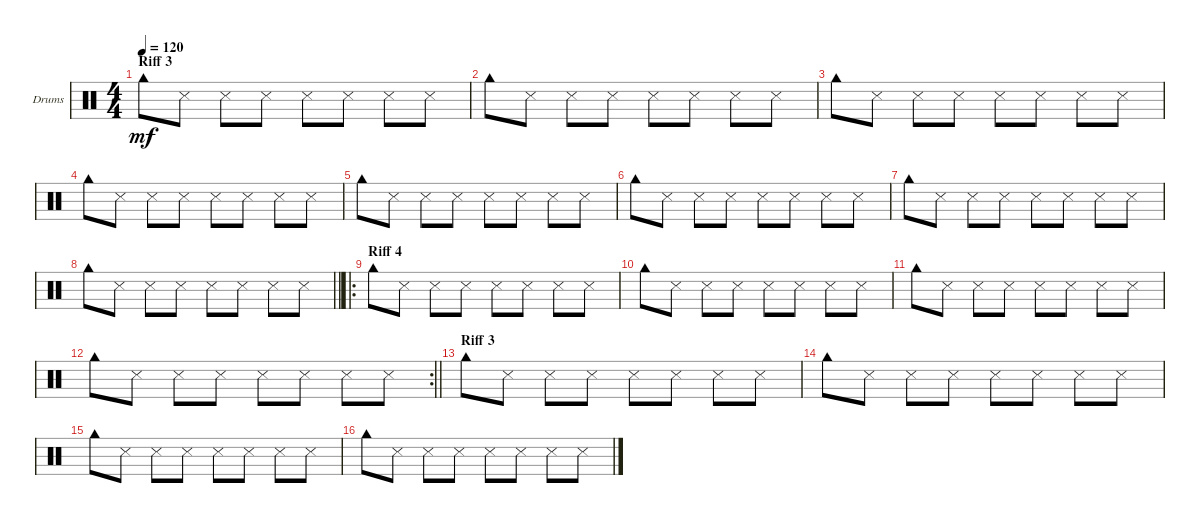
\bracketExtendMode groupsimilarinstruments
\firstSystemTrackNameOrientation horizontal
\otherSystemsTrackNameOrientation horizontal
\track ("Drumkit" "Drums") {instrument percussion}
\staff {score}
\articulation defaults
\ts (4 4)
\section ("" "Riff 3")
\tempo 120
\clef neutral
\scale
0.322034
\ks c "Cowbell high (hit)".8{dy mf} "Snare (side stick) 3".8 "Snare (side stick) 3".8 "Snare (side stick) 3".8 "Snare (side stick) 3".8 "Snare (side stick) 3".8 "Snare (side stick) 3".8 "Snare (side stick) 3".8
|
\scale
0.322034 "Cowbell high (hit)".8 "Snare (side stick) 3".8 "Snare (side stick) 3".8 "Snare (side stick) 3".8 "Snare (side stick) 3".8 "Snare (side stick) 3".8 "Snare (side stick) 3".8 "Snare (side stick) 3".8 |
\scale
0.333333 "Cowbell high (hit)".8 "Snare (side stick) 3".8 "Snare (side stick) 3".8 "Snare (side stick) 3".8 "Snare (side stick) 3".8 "Snare (side stick) 3".8 "Snare (side stick) 3".8 "Snare (side stick) 3".8 |
\scale
0.333333 "Cowbell high (hit)".8 "Snare (side stick) 3".8 "Snare (side stick) 3".8 "Snare (side stick) 3".8 "Snare (side stick) 3".8 "Snare (side stick) 3".8 "Snare (side stick) 3".8 "Snare (side stick) 3".8 |
\scale
0.333333 "Cowbell high (hit)".8 "Snare (side stick) 3".8 "Snare (side stick) 3".8 "Snare (side stick) 3".8 "Snare (side stick) 3".8 "Snare (side stick) 3".8 "Snare (side stick) 3".8 "Snare (side stick) 3".8 |
\scale
0.333333 "Cowbell high (hit)".8 "Snare (side stick) 3".8 "Snare (side stick) 3".8 "Snare (side stick) 3".8 "Snare (side stick) 3".8 "Snare (side stick) 3".8 "Snare (side stick) 3".8 "Snare (side stick) 3".8 |
\scale
0.333333 "Cowbell high (hit)".8 "Snare (side stick) 3".8 "Snare (side stick) 3".8 "Snare (side stick) 3".8 "Snare (side stick) 3".8 "Snare (side stick) 3".8 "Snare (side stick) 3".8 "Snare (side stick) 3".8 |
\scale
0.333333
\barLineRight lightlight "Cowbell high (hit)".8 "Snare (side stick) 3".8 "Snare (side stick) 3".8 "Snare (side stick) 3".8 "Snare (side stick) 3".8 "Snare (side stick) 3".8 "Snare (side stick) 3".8 "Snare (side stick) 3".8
|
\ro
\section ("" "Riff 4")
\scale
0.377049 "Cowbell high (hit)".8 "Snare (side stick) 3".8 "Snare (side stick) 3".8 "Snare (side stick) 3".8 "Snare (side stick) 3".8 "Snare (side stick) 3".8 "Snare (side stick) 3".8 "Snare (side stick) 3".8 |
\scale
0.311475 "Cowbell high (hit)".8 "Snare (side stick) 3".8 "Snare (side stick) 3".8 "Snare (side stick) 3".8 "Snare (side stick) 3".8 "Snare (side stick) 3".8 "Snare (side stick) 3".8 "Snare (side stick) 3".8 |
\scale
0.311475 "Cowbell high (hit)".8 "Snare (side stick) 3".8 "Snare (side stick) 3".8 "Snare (side stick) 3".8 "Snare (side stick) 3".8 "Snare (side stick) 3".8 "Snare (side stick) 3".8 "Snare (side stick) 3".8 |
\rc 2
\scale
0.355932
\barLineRight lightlight "Cowbell high (hit)".8 "Snare (side stick) 3".8 "Snare (side stick) 3".8 "Snare (side stick) 3".8 "Snare (side stick) 3".8 "Snare (side stick) 3".8 "Snare (side stick) 3".8 "Snare (side stick) 3".8
|
\section ("" "Riff 3")
\scale
0.322034 "Cowbell high (hit)".8 "Snare (side stick) 3".8 "Snare (side stick) 3".8 "Snare (side stick) 3".8 "Snare (side stick) 3".8 "Snare (side stick) 3".8 "Snare (side stick) 3".8 "Snare (side stick) 3".8 |
\scale
0.322034 "Cowbell high (hit)".8 "Snare (side stick) 3".8 "Snare (side stick) 3".8 "Snare (side stick) 3".8 "Snare (side stick) 3".8 "Snare (side stick) 3".8 "Snare (side stick) 3".8 "Snare (side stick) 3".8 |
\scale
0.333333 "Cowbell high (hit)".8 "Snare (side stick) 3".8 "Snare (side stick) 3".8 "Snare (side stick) 3".8 "Snare (side stick) 3".8 "Snare (side stick) 3".8 "Snare (side stick) 3".8 "Snare (side stick) 3".8 |
\scale
0.333333 "Cowbell high (hit)".8 "Snare (side stick) 3".8 "Snare (side stick) 3".8 "Snare (side stick) 3".8 "Snare (side stick) 3".8 "Snare (side stick) 3".8 "Snare (side stick) 3".8 "Snare (side stick) 3".8
